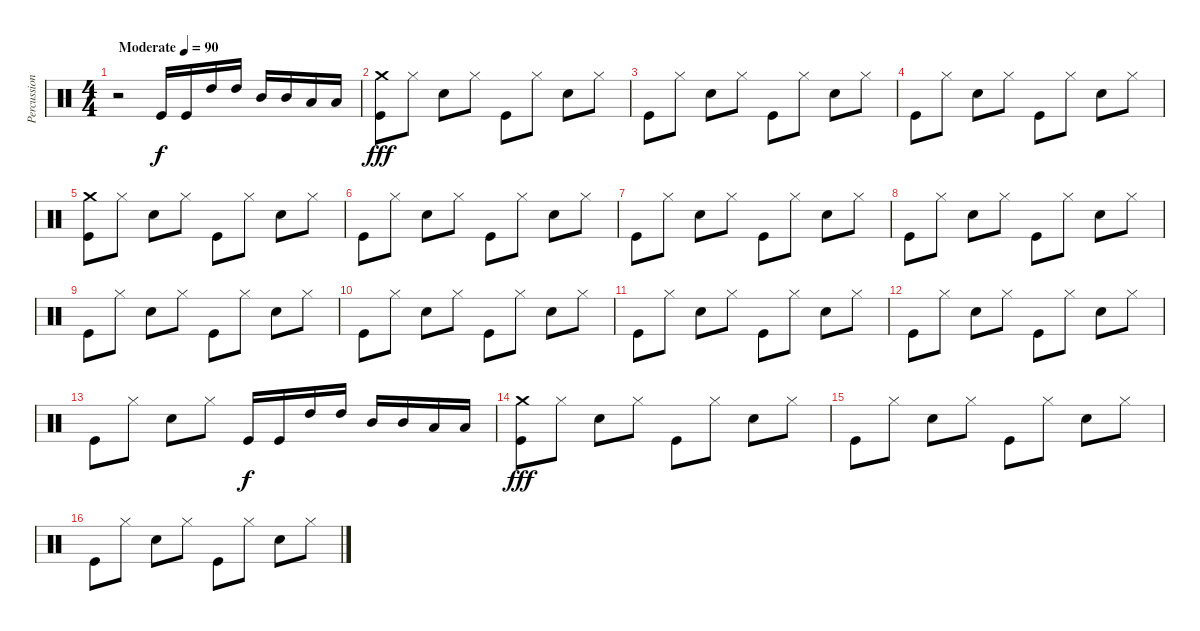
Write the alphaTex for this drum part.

\track ("Percussion" "Percussion") {instrument percussion}
\staff {score}
\articulation defaults
\ts (4 4)
\tempo (90 "Moderate")
\clef neutral
\ks c
r.2{dy f} "Kick (hit)".16 "Kick (hit)".16 "High Tom (hit)".16 "High Tom (hit)".16 "Mid Tom (hit)".16 "Mid Tom (hit)".16 "Low Tom (hit)".16 "Low Tom (hit)".16 |
("Kick (hit)" "Crash medium (hit)").8{dy fff} "Hi-Hat (closed)".8 "Snare (hit) 2".8 "Hi-Hat (closed)".8 "Kick (hit)".8 "Hi-Hat (closed)".8 "Snare (hit) 2".8 "Hi-Hat (closed)".8 |
"Kick (hit)".8 "Hi-Hat (closed)".8 "Snare (hit) 2".8 "Hi-Hat (closed)".8 "Kick (hit)".8 "Hi-Hat (closed)".8 "Snare (hit) 2".8 "Hi-Hat (closed)".8 |
"Kick (hit)".8 "Hi-Hat (closed)".8 "Snare (hit) 2".8 "Hi-Hat (closed)".8 "Kick (hit)".8 "Hi-Hat (closed)".8 "Snare (hit) 2".8 "Hi-Hat (closed)".8 |
("Kick (hit)" "Crash medium (hit)").8 "Hi-Hat (closed)".8 "Snare (hit) 2".8 "Hi-Hat (closed)".8 "Kick (hit)".8 "Hi-Hat (closed)".8 "Snare (hit) 2".8 "Hi-Hat (closed)".8 |
"Kick (hit)".8 "Hi-Hat (closed)".8 "Snare (hit) 2".8 "Hi-Hat (closed)".8 "Kick (hit)".8 "Hi-Hat (closed)".8 "Snare (hit) 2".8 "Hi-Hat (closed)".8 |
"Kick (hit)".8 "Hi-Hat (closed)".8 "Snare (hit) 2".8 "Hi-Hat (closed)".8 "Kick (hit)".8 "Hi-Hat (closed)".8 "Snare (hit) 2".8 "Hi-Hat (closed)".8 |
"Kick (hit)".8 "Hi-Hat (closed)".8 "Snare (hit) 2".8 "Hi-Hat (closed)".8 "Kick (hit)".8 "Hi-Hat (closed)".8 "Snare (hit) 2".8 "Hi-Hat (closed)".8 |
"Kick (hit)".8 "Hi-Hat (closed)".8 "Snare (hit) 2".8 "Hi-Hat (closed)".8 "Kick (hit)".8 "Hi-Hat (closed)".8 "Snare (hit) 2".8 "Hi-Hat (closed)".8 |
"Kick (hit)".8 "Hi-Hat (closed)".8 "Snare (hit) 2".8 "Hi-Hat (closed)".8 "Kick (hit)".8 "Hi-Hat (closed)".8 "Snare (hit) 2".8 "Hi-Hat (closed)".8 |
"Kick (hit)".8 "Hi-Hat (closed)".8 "Snare (hit) 2".8 "Hi-Hat (closed)".8 "Kick (hit)".8 "Hi-Hat (closed)".8 "Snare (hit) 2".8 "Hi-Hat (closed)".8 |
"Kick (hit)".8 "Hi-Hat (closed)".8 "Snare (hit) 2".8 "Hi-Hat (closed)".8 "Kick (hit)".8 "Hi-Hat (closed)".8 "Snare (hit) 2".8 "Hi-Hat (closed)".8 |
"Kick (hit)".8 "Hi-Hat (closed)".8 "Snare (hit) 2".8 "Hi-Hat (closed)".8 "Kick (hit)".16{dy f} "Kick (hit)".16 "High Tom (hit)".16 "High Tom (hit)".16 "Mid Tom (hit)".16 "Mid Tom (hit)".16 "Low Tom (hit)".16 "Low Tom (hit)".16 |
("Kick (hit)" "Crash medium (hit)").8{dy fff} "Hi-Hat (closed)".8 "Snare (hit) 2".8 "Hi-Hat (closed)".8 "Kick (hit)".8 "Hi-Hat (closed)".8 "Snare (hit) 2".8 "Hi-Hat (closed)".8 |
"Kick (hit)".8 "Hi-Hat (closed)".8 "Snare (hit) 2".8 "Hi-Hat (closed)".8 "Kick (hit)".8 "Hi-Hat (closed)".8 "Snare (hit) 2".8 "Hi-Hat (closed)".8 |
"Kick (hit)".8 "Hi-Hat (closed)".8 "Snare (hit) 2".8 "Hi-Hat (closed)".8 "Kick (hit)".8 "Hi-Hat (closed)".8 "Snare (hit) 2".8 "Hi-Hat (closed)".8
